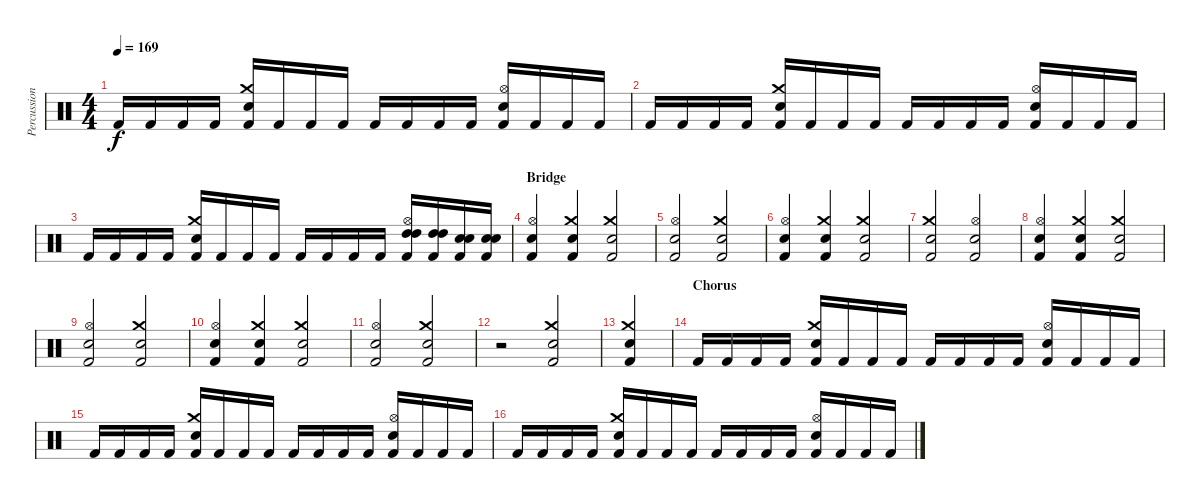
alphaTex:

\track ("Percussion" "Percussion") {instrument percussion}
\staff {score}
\articulation defaults
\ts (4 4)
\tempo 169
\clef neutral
\ks c "Kick (hit) 2".16{dy f} "Kick (hit) 2".16 "Kick (hit) 2".16 "Kick (hit) 2".16
("Crash medium (hit)" "Electric Snare (hit)" "Kick (hit) 2").16 "Kick (hit) 2".16 "Kick (hit) 2".16 "Kick (hit) 2".16 "Kick (hit) 2".16 "Kick (hit) 2".16 "Kick (hit) 2".16 "Kick (hit) 2".16 ("Hi-Hat (open)" "Snare (hit) 2" "Kick (hit) 2").16 "Kick (hit) 2".16 "Kick (hit) 2".16 "Kick (hit) 2".16 |
"Kick (hit) 2".16 "Kick (hit) 2".16 "Kick (hit) 2".16 "Kick (hit) 2".16 ("Crash medium (hit)" "Electric Snare (hit)" "Kick (hit) 2").16 "Kick (hit) 2".16 "Kick (hit) 2".16 "Kick (hit) 2".16 "Kick (hit) 2".16 "Kick (hit) 2".16 "Kick (hit) 2".16 "Kick (hit) 2".16 ("Hi-Hat (open)" "Snare (hit) 2" "Kick (hit) 2").16 "Kick (hit) 2".16 "Kick (hit) 2".16 "Kick (hit) 2".16 |
"Kick (hit) 2".16 "Kick (hit) 2".16 "Kick (hit) 2".16 "Kick (hit) 2".16 ("Crash medium (hit)" "Electric Snare (hit)" "Kick (hit) 2").16 "Kick (hit) 2".16 "Kick (hit) 2".16 "Kick (hit) 2".16 "Kick (hit) 2".16 "Kick (hit) 2".16 "Kick (hit) 2".16 "Kick (hit) 2".16 ("Hi-Hat (open)" "High Tom (hit)" "High Tom (hit)" "Kick (hit) 2").16 ("High Tom (hit)" "High Tom (hit)" "Kick (hit) 2").16 ("Snare (hit) 2" "Snare (hit) 2" "Kick (hit) 2").16 ("Snare (hit) 2" "Snare (hit) 2" "Kick (hit) 2").16 |
\section ("" "Bridge")
("Hi-Hat (open)" "Snare (hit) 2" "Kick (hit) 2").4 ("Crash medium (hit)" "Snare (hit) 2" "Kick (hit) 2").4 ("Crash medium (hit)" "Snare (hit) 2" "Kick (hit) 2").2 |
("Hi-Hat (open)" "Snare (hit) 2" "Kick (hit) 2").2 ("Crash medium (hit)" "Snare (hit) 2" "Kick (hit) 2").2 |
("Hi-Hat (open)" "Snare (hit) 2" "Kick (hit) 2").4 ("Crash medium (hit)" "Snare (hit) 2" "Kick (hit) 2").4 ("Crash medium (hit)" "Snare (hit) 2" "Kick (hit) 2").2 |
("Crash medium (hit)" "Snare (hit) 2" "Kick (hit) 2").2 ("Hi-Hat (open)" "Snare (hit) 2" "Kick (hit) 2").2 |
("Hi-Hat (open)" "Snare (hit) 2" "Kick (hit) 2").4 ("Crash medium (hit)" "Snare (hit) 2" "Kick (hit) 2").4 ("Crash medium (hit)" "Snare (hit) 2" "Kick (hit) 2").2 |
("Hi-Hat (open)" "Snare (hit) 2" "Kick (hit) 2").2 ("Crash medium (hit)" "Snare (hit) 2" "Kick (hit) 2").2 |
("Hi-Hat (open)" "Snare (hit) 2" "Kick (hit) 2").4 ("Crash medium (hit)" "Snare (hit) 2" "Kick (hit) 2").4 ("Crash medium (hit)" "Snare (hit) 2" "Kick (hit) 2").2 |
("Hi-Hat (open)" "Snare (hit) 2" "Kick (hit) 2").2 ("Crash medium (hit)" "Snare (hit) 2" "Kick (hit) 2").2 |
r.2 ("Crash medium (hit)" "Snare (hit) 2" "Kick (hit) 2").2 |
("Crash medium (hit)" "Snare (hit) 2" "Kick (hit) 2").4 |
\section ("" "Chorus")
"Kick (hit) 2".16 "Kick (hit) 2".16 "Kick (hit) 2".16 "Kick (hit) 2".16 ("Crash medium (hit)" "Electric Snare (hit)" "Kick (hit) 2").16 "Kick (hit) 2".16 "Kick (hit) 2".16 "Kick (hit) 2".16 "Kick (hit) 2".16 "Kick (hit) 2".16 "Kick (hit) 2".16 "Kick (hit) 2".16 ("Hi-Hat (open)" "Snare (hit) 2" "Kick (hit) 2").16 "Kick (hit) 2".16 "Kick (hit) 2".16 "Kick (hit) 2".16 |
"Kick (hit) 2".16 "Kick (hit) 2".16 "Kick (hit) 2".16 "Kick (hit) 2".16 ("Crash medium (hit)" "Electric Snare (hit)" "Kick (hit) 2").16 "Kick (hit) 2".16 "Kick (hit) 2".16 "Kick (hit) 2".16 "Kick (hit) 2".16 "Kick (hit) 2".16 "Kick (hit) 2".16 "Kick (hit) 2".16 ("Hi-Hat (open)" "Snare (hit) 2" "Kick (hit) 2").16 "Kick (hit) 2".16 "Kick (hit) 2".16 "Kick (hit) 2".16 |
"Kick (hit) 2".16 "Kick (hit) 2".16 "Kick (hit) 2".16 "Kick (hit) 2".16 ("Crash medium (hit)" "Electric Snare (hit)" "Kick (hit) 2").16 "Kick (hit) 2".16 "Kick (hit) 2".16 "Kick (hit) 2".16 "Kick (hit) 2".16 "Kick (hit) 2".16 "Kick (hit) 2".16 "Kick (hit) 2".16 ("Hi-Hat (open)" "Snare (hit) 2" "Kick (hit) 2").16 "Kick (hit) 2".16 "Kick (hit) 2".16 "Kick (hit) 2".16
